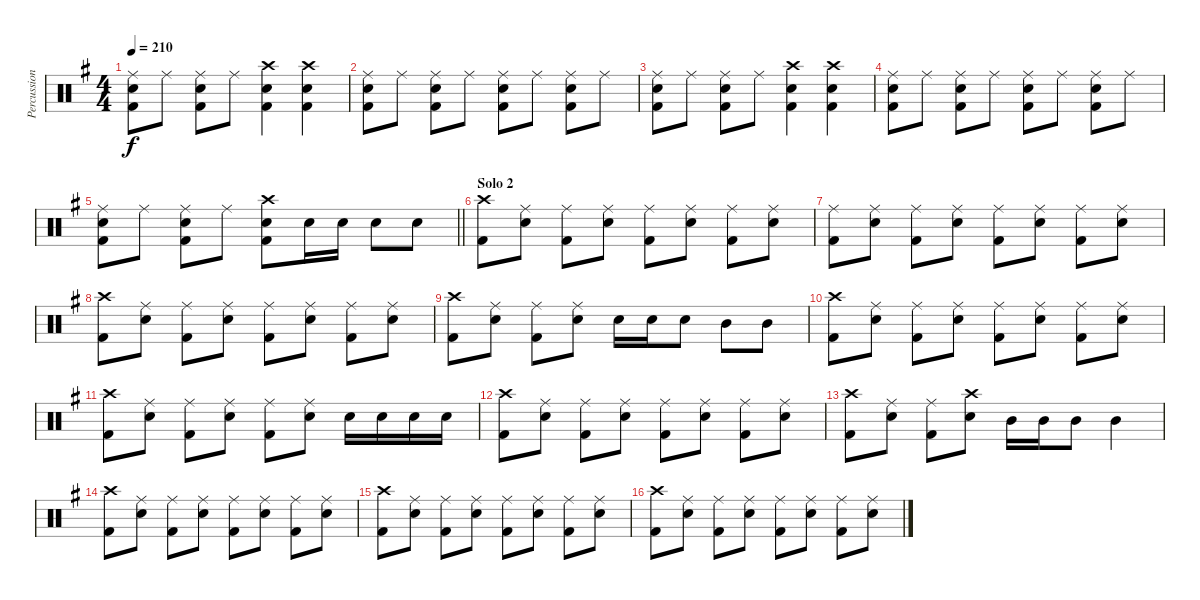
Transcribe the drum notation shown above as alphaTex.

\track ("Percussion" "Percussion") {instrument percussion}
\staff {score}
\articulation defaults
\ts (4 4)
\tempo 210
\clef neutral
\ks eminor
("Ride (middle)" "Snare (hit) 2" "Kick (hit) 2").8{dy f} "Ride (middle)".8 ("Ride (middle)" "Snare (hit) 2" "Kick (hit) 2").8 "Ride (middle)".8 ("Crash high (hit)" "Snare (hit) 2" "Kick (hit) 2").4 ("Crash high (hit)" "Snare (hit) 2" "Kick (hit) 2").4 |
("Ride (middle)" "Snare (hit) 2" "Kick (hit) 2").8 "Ride (middle)".8 ("Ride (middle)" "Snare (hit) 2" "Kick (hit) 2").8 "Ride (middle)".8 ("Ride (middle)" "Snare (hit) 2" "Kick (hit) 2").8 "Ride (middle)".8 ("Ride (middle)" "Snare (hit) 2" "Kick (hit) 2").8 "Ride (middle)".8 |
("Ride (middle)" "Snare (hit) 2" "Kick (hit) 2").8 "Ride (middle)".8 ("Ride (middle)" "Snare (hit) 2" "Kick (hit) 2").8 "Ride (middle)".8 ("Crash high (hit)" "Snare (hit) 2" "Kick (hit) 2").4 ("Crash high (hit)" "Snare (hit) 2" "Kick (hit) 2").4 |
("Ride (middle)" "Snare (hit) 2" "Kick (hit) 2").8 "Ride (middle)".8 ("Ride (middle)" "Snare (hit) 2" "Kick (hit) 2").8 "Ride (middle)".8 ("Ride (middle)" "Snare (hit) 2" "Kick (hit) 2").8 "Ride (middle)".8 ("Ride (middle)" "Snare (hit) 2" "Kick (hit) 2").8 "Ride (middle)".8 |
\barLineRight lightlight
("Ride (middle)" "Snare (hit) 2" "Kick (hit) 2").8 "Ride (middle)".8 ("Ride (middle)" "Snare (hit) 2" "Kick (hit) 2").8 "Ride (middle)".8 ("Crash high (hit)" "Snare (hit) 2" "Kick (hit) 2").8 "Snare (hit) 2".16 "Snare (hit) 2".16 "Snare (hit) 2".8 "Snare (hit) 2".8 |
\section ("" "Solo 2")
("Crash high (hit)" "Kick (hit) 2").8 ("Ride (middle)" "Snare (hit) 2").8 ("Ride (middle)" "Kick (hit) 2").8 ("Ride (middle)" "Snare (hit) 2").8 ("Ride (middle)" "Kick (hit) 2").8 ("Ride (middle)" "Snare (hit) 2").8 ("Ride (middle)" "Kick (hit) 2").8 ("Ride (middle)" "Snare (hit) 2").8 |
("Ride (middle)" "Kick (hit) 2").8 ("Ride (middle)" "Snare (hit) 2").8 ("Ride (middle)" "Kick (hit) 2").8 ("Ride (middle)" "Snare (hit) 2").8 ("Ride (middle)" "Kick (hit) 2").8 ("Ride (middle)" "Snare (hit) 2").8 ("Ride (middle)" "Kick (hit) 2").8 ("Ride (middle)" "Snare (hit) 2").8 |
("Crash high (hit)" "Kick (hit) 2").8 ("Ride (middle)" "Snare (hit) 2").8 ("Ride (middle)" "Kick (hit) 2").8 ("Ride (middle)" "Snare (hit) 2").8 ("Ride (middle)" "Kick (hit) 2").8 ("Ride (middle)" "Snare (hit) 2").8 ("Ride (middle)" "Kick (hit) 2").8 ("Ride (middle)" "Snare (hit) 2").8 |
("Crash high (hit)" "Kick (hit) 2").8 ("Ride (middle)" "Snare (hit) 2").8 ("Ride (middle)" "Kick (hit) 2").8 ("Ride (middle)" "Snare (hit) 2").8 "Snare (hit) 2".16 "Snare (hit) 2".16 "Snare (hit) 2".8 "Mid Tom (hit)".8 "Mid Tom (hit)".8 |
("Crash high (hit)" "Kick (hit) 2").8 ("Ride (middle)" "Snare (hit) 2").8 ("Ride (middle)" "Kick (hit) 2").8 ("Ride (middle)" "Snare (hit) 2").8 ("Ride (middle)" "Kick (hit) 2").8 ("Ride (middle)" "Snare (hit) 2").8 ("Ride (middle)" "Kick (hit) 2").8 ("Ride (middle)" "Snare (hit) 2").8 |
("Crash high (hit)" "Kick (hit) 2").8 ("Ride (middle)" "Snare (hit) 2").8 ("Ride (middle)" "Kick (hit) 2").8 ("Ride (middle)" "Snare (hit) 2").8 ("Ride (middle)" "Kick (hit) 2").8 ("Ride (middle)" "Snare (hit) 2").8 "Snare (hit) 2".16 "Snare (hit) 2".16 "Snare (hit) 2".16 "Snare (hit) 2".16 |
("Crash high (hit)" "Kick (hit) 2").8 ("Ride (middle)" "Snare (hit) 2").8 ("Ride (middle)" "Kick (hit) 2").8 ("Ride (middle)" "Snare (hit) 2").8 ("Ride (middle)" "Kick (hit) 2").8 ("Ride (middle)" "Snare (hit) 2").8 ("Ride (middle)" "Kick (hit) 2").8 ("Ride (middle)" "Snare (hit) 2").8 |
("Crash high (hit)" "Kick (hit) 2").8 ("Ride (middle)" "Snare (hit) 2").8 ("Ride (middle)" "Kick (hit) 2").8 ("Crash high (hit)" "Snare (hit) 2").8 "Mid Tom (hit)".16 "Mid Tom (hit)".16 "Mid Tom (hit)".8 "Mid Tom (hit)".4 |
("Crash high (hit)" "Kick (hit) 2").8 ("Ride (middle)" "Snare (hit) 2").8 ("Ride (middle)" "Kick (hit) 2").8 ("Ride (middle)" "Snare (hit) 2").8 ("Ride (middle)" "Kick (hit) 2").8 ("Ride (middle)" "Snare (hit) 2").8 ("Ride (middle)" "Kick (hit) 2").8 ("Ride (middle)" "Snare (hit) 2").8 |
("Crash high (hit)" "Kick (hit) 2").8 ("Ride (middle)" "Snare (hit) 2").8 ("Ride (middle)" "Kick (hit) 2").8 ("Ride (middle)" "Snare (hit) 2").8 ("Ride (middle)" "Kick (hit) 2").8 ("Ride (middle)" "Snare (hit) 2").8 ("Ride (middle)" "Kick (hit) 2").8 ("Ride (middle)" "Snare (hit) 2").8 |
("Crash high (hit)" "Kick (hit) 2").8 ("Ride (middle)" "Snare (hit) 2").8 ("Ride (middle)" "Kick (hit) 2").8 ("Ride (middle)" "Snare (hit) 2").8 ("Ride (middle)" "Kick (hit) 2").8 ("Ride (middle)" "Snare (hit) 2").8 ("Ride (middle)" "Kick (hit) 2").8 ("Ride (middle)" "Snare (hit) 2").8
